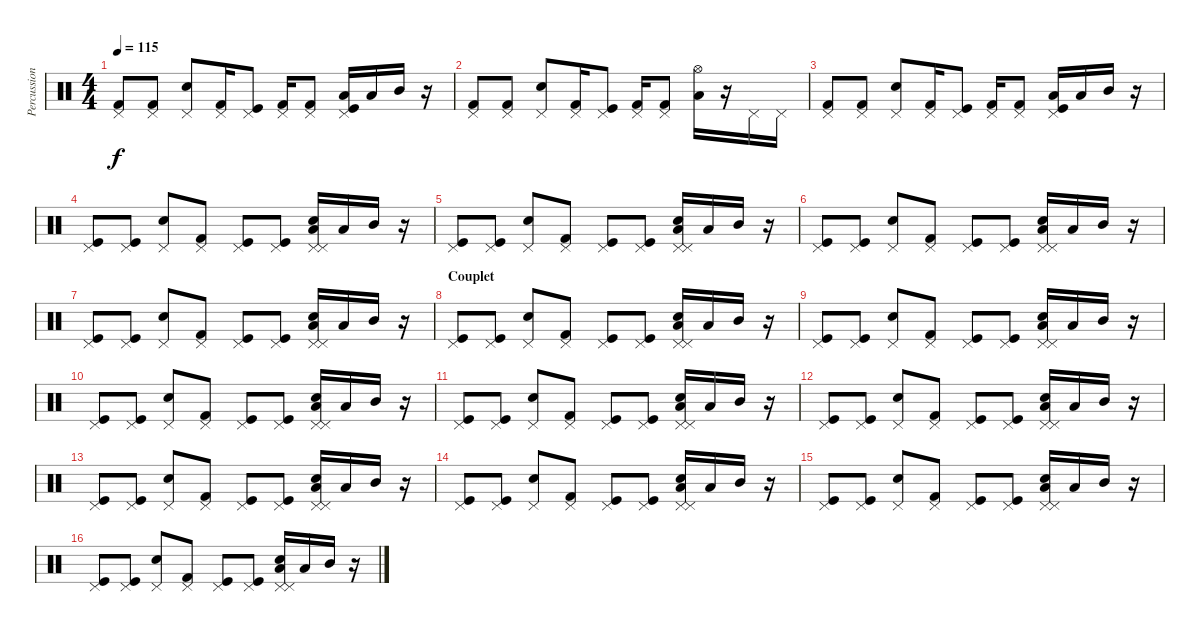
\track ("Percussions" "Percussion") {instrument percussion}
\staff {score}
\articulation defaults
\ts (4 4)
\tempo 115
\clef neutral
\ks c
("Kick (hit) 2" "Pedal Hi-Hat (hit)").8{dy f} ("Kick (hit) 2" "Pedal Hi-Hat (hit)").8 ("Snare (hit) 2" "Pedal Hi-Hat (hit)").8 ("Kick (hit) 2" "Pedal Hi-Hat (hit)").16 ("Kick (hit)" "Pedal Hi-Hat (hit)").8 ("Kick (hit) 2" "Pedal Hi-Hat (hit)").16 ("Kick (hit) 2" "Pedal Hi-Hat (hit)").8 ("Kick (hit)" "Pedal Hi-Hat (hit)" "Low Tom (hit)").16 "Low Tom (hit)".16 "Mid Tom (hit)".16 r.16 |
("Kick (hit) 2" "Pedal Hi-Hat (hit)").8 ("Kick (hit) 2" "Pedal Hi-Hat (hit)").8 ("Snare (hit) 2" "Pedal Hi-Hat (hit)").8 ("Kick (hit) 2" "Pedal Hi-Hat (hit)").16 ("Kick (hit)" "Pedal Hi-Hat (hit)").8 ("Kick (hit) 2" "Pedal Hi-Hat (hit)").16 ("Kick (hit) 2" "Pedal Hi-Hat (hit)").8 ("Low Tom (hit)" "Hi-Hat (open)").16 r.16 "Pedal Hi-Hat (hit)".16 "Pedal Hi-Hat (hit)".16 |
("Kick (hit) 2" "Pedal Hi-Hat (hit)").8 ("Kick (hit) 2" "Pedal Hi-Hat (hit)").8 ("Snare (hit) 2" "Pedal Hi-Hat (hit)").8 ("Kick (hit) 2" "Pedal Hi-Hat (hit)").16 ("Kick (hit)" "Pedal Hi-Hat (hit)").8 ("Kick (hit) 2" "Pedal Hi-Hat (hit)").16 ("Kick (hit) 2" "Pedal Hi-Hat (hit)").8 ("Kick (hit)" "Pedal Hi-Hat (hit)" "Low Tom (hit)").16 "Low Tom (hit)".16 "Mid Tom (hit)".16 r.16 |
("Kick (hit)" "Pedal Hi-Hat (hit)").8 ("Kick (hit)" "Pedal Hi-Hat (hit)").8 ("Snare (hit) 2" "Pedal Hi-Hat (hit)").8 ("Kick (hit) 2" "Pedal Hi-Hat (hit)").8 ("Kick (hit)" "Pedal Hi-Hat (hit)").8 ("Kick (hit)" "Pedal Hi-Hat (hit)").8 ("Snare (hit) 2" "Pedal Hi-Hat (hit)" "Low Tom (hit)" "Pedal Hi-Hat (hit)").16 "Low Tom (hit)".16 "Mid Tom (hit)".16 r.16 |
("Kick (hit)" "Pedal Hi-Hat (hit)").8 ("Kick (hit)" "Pedal Hi-Hat (hit)").8 ("Snare (hit) 2" "Pedal Hi-Hat (hit)").8 ("Kick (hit) 2" "Pedal Hi-Hat (hit)").8 ("Kick (hit)" "Pedal Hi-Hat (hit)").8 ("Kick (hit)" "Pedal Hi-Hat (hit)").8 ("Snare (hit) 2" "Pedal Hi-Hat (hit)" "Low Tom (hit)" "Pedal Hi-Hat (hit)").16 "Low Tom (hit)".16 "Mid Tom (hit)".16 r.16 |
("Kick (hit)" "Pedal Hi-Hat (hit)").8 ("Kick (hit)" "Pedal Hi-Hat (hit)").8 ("Snare (hit) 2" "Pedal Hi-Hat (hit)").8 ("Kick (hit) 2" "Pedal Hi-Hat (hit)").8 ("Kick (hit)" "Pedal Hi-Hat (hit)").8 ("Kick (hit)" "Pedal Hi-Hat (hit)").8 ("Snare (hit) 2" "Pedal Hi-Hat (hit)" "Low Tom (hit)" "Pedal Hi-Hat (hit)").16 "Low Tom (hit)".16 "Mid Tom (hit)".16 r.16 |
("Kick (hit)" "Pedal Hi-Hat (hit)").8 ("Kick (hit)" "Pedal Hi-Hat (hit)").8 ("Snare (hit) 2" "Pedal Hi-Hat (hit)").8 ("Kick (hit) 2" "Pedal Hi-Hat (hit)").8 ("Kick (hit)" "Pedal Hi-Hat (hit)").8 ("Kick (hit)" "Pedal Hi-Hat (hit)").8 ("Snare (hit) 2" "Pedal Hi-Hat (hit)" "Low Tom (hit)" "Pedal Hi-Hat (hit)").16 "Low Tom (hit)".16 "Mid Tom (hit)".16 r.16 |
\section ("" "Couplet")
("Kick (hit)" "Pedal Hi-Hat (hit)").8 ("Kick (hit)" "Pedal Hi-Hat (hit)").8 ("Snare (hit) 2" "Pedal Hi-Hat (hit)").8 ("Kick (hit) 2" "Pedal Hi-Hat (hit)").8 ("Kick (hit)" "Pedal Hi-Hat (hit)").8 ("Kick (hit)" "Pedal Hi-Hat (hit)").8 ("Snare (hit) 2" "Pedal Hi-Hat (hit)" "Low Tom (hit)" "Pedal Hi-Hat (hit)").16 "Low Tom (hit)".16 "Mid Tom (hit)".16 r.16 |
("Kick (hit)" "Pedal Hi-Hat (hit)").8 ("Kick (hit)" "Pedal Hi-Hat (hit)").8 ("Snare (hit) 2" "Pedal Hi-Hat (hit)").8 ("Kick (hit) 2" "Pedal Hi-Hat (hit)").8 ("Kick (hit)" "Pedal Hi-Hat (hit)").8 ("Kick (hit)" "Pedal Hi-Hat (hit)").8 ("Snare (hit) 2" "Pedal Hi-Hat (hit)" "Low Tom (hit)" "Pedal Hi-Hat (hit)").16 "Low Tom (hit)".16 "Mid Tom (hit)".16 r.16 |
("Kick (hit)" "Pedal Hi-Hat (hit)").8 ("Kick (hit)" "Pedal Hi-Hat (hit)").8 ("Snare (hit) 2" "Pedal Hi-Hat (hit)").8 ("Kick (hit) 2" "Pedal Hi-Hat (hit)").8 ("Kick (hit)" "Pedal Hi-Hat (hit)").8 ("Kick (hit)" "Pedal Hi-Hat (hit)").8 ("Snare (hit) 2" "Pedal Hi-Hat (hit)" "Low Tom (hit)" "Pedal Hi-Hat (hit)").16 "Low Tom (hit)".16 "Mid Tom (hit)".16 r.16 |
("Kick (hit)" "Pedal Hi-Hat (hit)").8 ("Kick (hit)" "Pedal Hi-Hat (hit)").8 ("Snare (hit) 2" "Pedal Hi-Hat (hit)").8 ("Kick (hit) 2" "Pedal Hi-Hat (hit)").8 ("Kick (hit)" "Pedal Hi-Hat (hit)").8 ("Kick (hit)" "Pedal Hi-Hat (hit)").8 ("Snare (hit) 2" "Pedal Hi-Hat (hit)" "Low Tom (hit)" "Pedal Hi-Hat (hit)").16 "Low Tom (hit)".16 "Mid Tom (hit)".16 r.16 |
("Kick (hit)" "Pedal Hi-Hat (hit)").8 ("Kick (hit)" "Pedal Hi-Hat (hit)").8 ("Snare (hit) 2" "Pedal Hi-Hat (hit)").8 ("Kick (hit) 2" "Pedal Hi-Hat (hit)").8 ("Kick (hit)" "Pedal Hi-Hat (hit)").8 ("Kick (hit)" "Pedal Hi-Hat (hit)").8 ("Snare (hit) 2" "Pedal Hi-Hat (hit)" "Low Tom (hit)" "Pedal Hi-Hat (hit)").16 "Low Tom (hit)".16 "Mid Tom (hit)".16 r.16 |
("Kick (hit)" "Pedal Hi-Hat (hit)").8 ("Kick (hit)" "Pedal Hi-Hat (hit)").8 ("Snare (hit) 2" "Pedal Hi-Hat (hit)").8 ("Kick (hit) 2" "Pedal Hi-Hat (hit)").8 ("Kick (hit)" "Pedal Hi-Hat (hit)").8 ("Kick (hit)" "Pedal Hi-Hat (hit)").8 ("Snare (hit) 2" "Pedal Hi-Hat (hit)" "Low Tom (hit)" "Pedal Hi-Hat (hit)").16 "Low Tom (hit)".16 "Mid Tom (hit)".16 r.16 |
("Kick (hit)" "Pedal Hi-Hat (hit)").8 ("Kick (hit)" "Pedal Hi-Hat (hit)").8 ("Snare (hit) 2" "Pedal Hi-Hat (hit)").8 ("Kick (hit) 2" "Pedal Hi-Hat (hit)").8 ("Kick (hit)" "Pedal Hi-Hat (hit)").8 ("Kick (hit)" "Pedal Hi-Hat (hit)").8 ("Snare (hit) 2" "Pedal Hi-Hat (hit)" "Low Tom (hit)" "Pedal Hi-Hat (hit)").16 "Low Tom (hit)".16 "Mid Tom (hit)".16 r.16 |
("Kick (hit)" "Pedal Hi-Hat (hit)").8 ("Kick (hit)" "Pedal Hi-Hat (hit)").8 ("Snare (hit) 2" "Pedal Hi-Hat (hit)").8 ("Kick (hit) 2" "Pedal Hi-Hat (hit)").8 ("Kick (hit)" "Pedal Hi-Hat (hit)").8 ("Kick (hit)" "Pedal Hi-Hat (hit)").8 ("Snare (hit) 2" "Pedal Hi-Hat (hit)" "Low Tom (hit)" "Pedal Hi-Hat (hit)").16 "Low Tom (hit)".16 "Mid Tom (hit)".16 r.16 |
("Kick (hit)" "Pedal Hi-Hat (hit)").8{volume 16} ("Kick (hit)" "Pedal Hi-Hat (hit)").8 ("Snare (hit) 2" "Pedal Hi-Hat (hit)").8 ("Kick (hit) 2" "Pedal Hi-Hat (hit)").8 ("Kick (hit)" "Pedal Hi-Hat (hit)").8 ("Kick (hit)" "Pedal Hi-Hat (hit)").8 ("Snare (hit) 2" "Pedal Hi-Hat (hit)" "Low Tom (hit)" "Pedal Hi-Hat (hit)").16 "Low Tom (hit)".16 "Mid Tom (hit)".16 r.16
